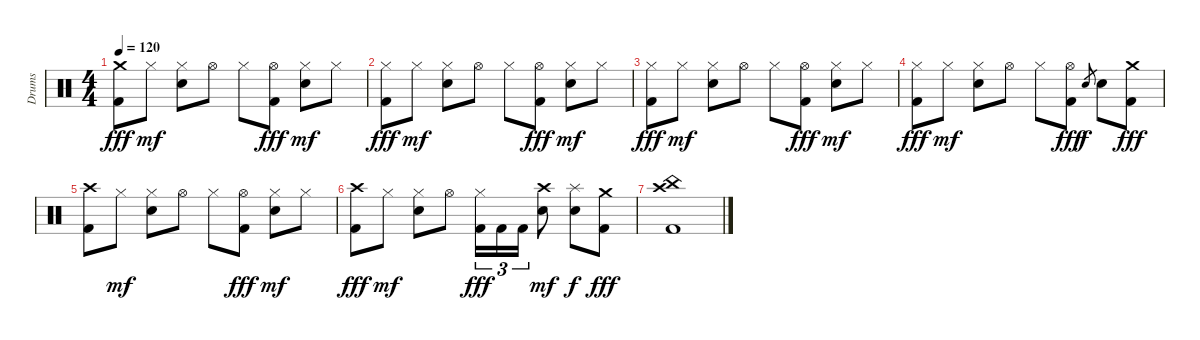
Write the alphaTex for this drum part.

\track ("Drums" "Drums") {instrument percussion}
\staff {score}
\articulation defaults
\ts (4 4)
\tempo 120
\clef neutral
\ks c
("Crash medium (hit)" "Kick (hit) 2").8{dy fff} "Hi-Hat (closed)".8{dy mf} ("Hi-Hat (closed)" "Electric Snare (hit)").8 "Hi-Hat (open)".8 "Hi-Hat (closed)".8 ("Hi-Hat (open)" "Kick (hit) 2").8{dy fff} ("Hi-Hat (closed)" "Electric Snare (hit)").8{dy mf} "Hi-Hat (closed)".8 |
("Hi-Hat (closed)" "Kick (hit) 2").8{dy fff} "Hi-Hat (closed)".8{dy mf} ("Hi-Hat (closed)" "Electric Snare (hit)").8 "Hi-Hat (open)".8 "Hi-Hat (closed)".8 ("Hi-Hat (open)" "Kick (hit) 2").8{dy fff} ("Hi-Hat (closed)" "Electric Snare (hit)").8{dy mf} "Hi-Hat (closed)".8 |
("Hi-Hat (closed)" "Kick (hit) 2").8{dy fff} "Hi-Hat (closed)".8{dy mf} ("Hi-Hat (closed)" "Electric Snare (hit)").8 "Hi-Hat (open)".8 "Hi-Hat (closed)".8 ("Hi-Hat (open)" "Kick (hit) 2").8{dy fff} ("Hi-Hat (closed)" "Electric Snare (hit)").8{dy mf} "Hi-Hat (closed)".8 |
("Hi-Hat (closed)" "Kick (hit) 2").8{dy fff} "Hi-Hat (closed)".8{dy mf} ("Hi-Hat (closed)" "Electric Snare (hit)").8 "Hi-Hat (open)".8 "Hi-Hat (closed)".8 ("Hi-Hat (open)" "Kick (hit) 2").8{dy fff} "Electric Snare (hit)".8{gr dy f} "Electric Snare (hit)".8 ("Crash medium (hit)" "Kick (hit) 2").8{dy fff} |
("Crash high (hit)" "Kick (hit) 2").8 "Hi-Hat (closed)".8{dy mf} ("Hi-Hat (closed)" "Electric Snare (hit)").8 "Hi-Hat (open)".8 "Hi-Hat (closed)".8 ("Hi-Hat (open)" "Kick (hit) 2").8{dy fff} ("Hi-Hat (closed)" "Electric Snare (hit)").8{dy mf} "Hi-Hat (closed)".8 |
("Crash high (hit)" "Kick (hit) 2").8{dy fff} "Hi-Hat (closed)".8{dy mf} ("Hi-Hat (closed)" "Electric Snare (hit)").8 "Hi-Hat (open)".8 ("Hi-Hat (closed)" "Kick (hit) 2").16{tu (3 2) dy fff} "Kick (hit) 2".16{tu (3 2)} "Kick (hit) 2".16{tu (3 2)} ("Crash high (hit)" "Electric Snare (hit)").8{dy mf} ("Splash (hit)" "Electric Snare (hit)").8{dy f} ("Crash medium (hit)" "Kick (hit) 2").8{dy fff} |
("Crash high (hit)" "China (hit)" "Kick (hit) 2").1
